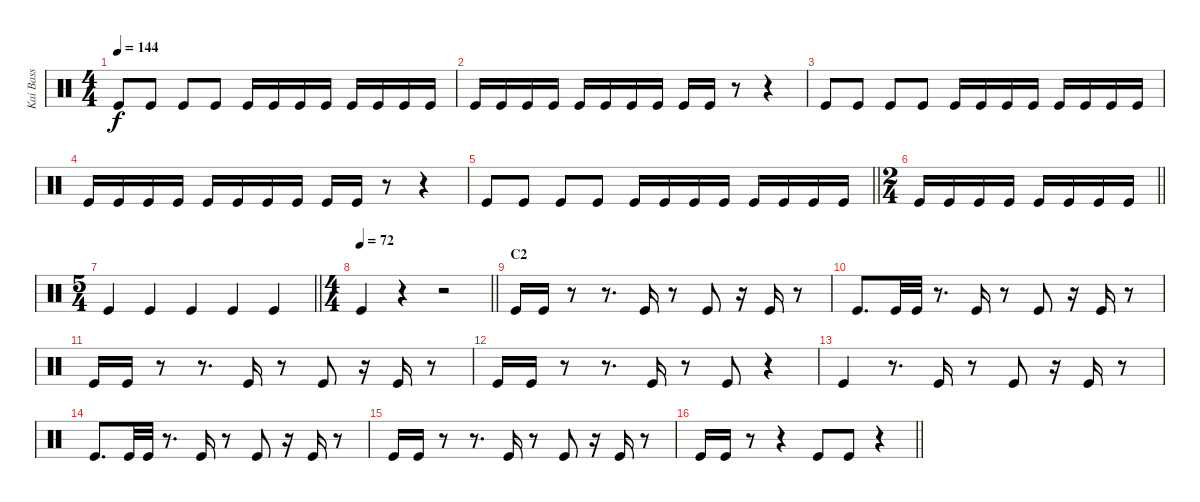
\track ("Kai Bass" "Kai Bass") {instrument percussion}
\staff {score}
\articulation defaults
\ts (4 4)
\tempo 144
\clef neutral
\ks c "Kick (hit)".8{dy f} "Kick (hit)".8 "Kick (hit)".8 "Kick (hit)".8 "Kick (hit)".16 "Kick (hit)".16 "Kick (hit)".16 "Kick (hit)".16 "Kick (hit)".16 "Kick (hit)".16 "Kick (hit)".16 "Kick (hit)".16
|
"Kick (hit)".16 "Kick (hit)".16 "Kick (hit)".16 "Kick (hit)".16 "Kick (hit)".16 "Kick (hit)".16 "Kick (hit)".16 "Kick (hit)".16 "Kick (hit)".16 "Kick (hit)".16 r.8 r.4 |
"Kick (hit)".8 "Kick (hit)".8 "Kick (hit)".8 "Kick (hit)".8 "Kick (hit)".16 "Kick (hit)".16 "Kick (hit)".16 "Kick (hit)".16 "Kick (hit)".16 "Kick (hit)".16 "Kick (hit)".16 "Kick (hit)".16 |
"Kick (hit)".16 "Kick (hit)".16 "Kick (hit)".16 "Kick (hit)".16 "Kick (hit)".16 "Kick (hit)".16 "Kick (hit)".16 "Kick (hit)".16 "Kick (hit)".16 "Kick (hit)".16 r.8 r.4 |
\barLineRight lightlight "Kick (hit)".8 "Kick (hit)".8 "Kick (hit)".8 "Kick (hit)".8 "Kick (hit)".16 "Kick (hit)".16 "Kick (hit)".16 "Kick (hit)".16 "Kick (hit)".16 "Kick (hit)".16 "Kick (hit)".16 "Kick (hit)".16
|
\ts (2 4)
\barLineRight lightlight "Kick (hit)".16 "Kick (hit)".16 "Kick (hit)".16 "Kick (hit)".16 "Kick (hit)".16 "Kick (hit)".16 "Kick (hit)".16 "Kick (hit)".16
|
\ts (5 4)
\barLineRight lightlight "Kick (hit)".4 "Kick (hit)".4 "Kick (hit)".4 "Kick (hit)".4 "Kick (hit)".4
|
\ts (4 4)
\tempo 72
\barLineRight lightlight "Kick (hit)".4
r.4 r.2 |
\section ("" "C2")
"Kick (hit)".16 "Kick (hit)".16 r.8 r.8{d} "Kick (hit)".16 r.8 "Kick (hit)".8 r.16 "Kick (hit)".16 r.8 |
"Kick (hit)".8{d} "Kick (hit)".32 "Kick (hit)".32 r.8{d} "Kick (hit)".16 r.8 "Kick (hit)".8 r.16 "Kick (hit)".16 r.8 |
"Kick (hit)".16 "Kick (hit)".16 r.8 r.8{d} "Kick (hit)".16 r.8 "Kick (hit)".8 r.16 "Kick (hit)".16 r.8 |
"Kick (hit)".16 "Kick (hit)".16 r.8 r.8{d} "Kick (hit)".16 r.8 "Kick (hit)".8 r.4 |
"Kick (hit)".4 r.8{d} "Kick (hit)".16 r.8 "Kick (hit)".8 r.16 "Kick (hit)".16 r.8 |
"Kick (hit)".8{d} "Kick (hit)".32 "Kick (hit)".32 r.8{d} "Kick (hit)".16 r.8 "Kick (hit)".8 r.16 "Kick (hit)".16 r.8 |
"Kick (hit)".16 "Kick (hit)".16 r.8 r.8{d} "Kick (hit)".16 r.8 "Kick (hit)".8 r.16 "Kick (hit)".16 r.8 |
\barLineRight lightlight "Kick (hit)".16 "Kick (hit)".16
r.8 r.4 "Kick (hit)".8 "Kick (hit)".8 r.4
